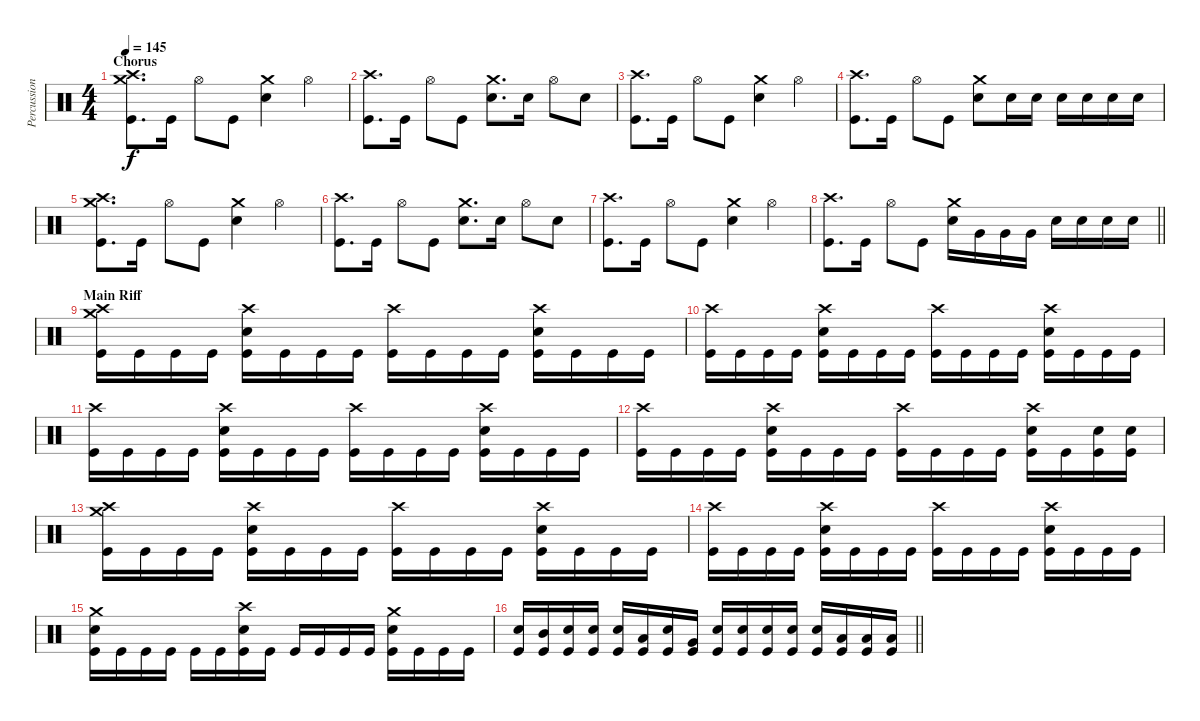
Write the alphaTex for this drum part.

\track ("Percussion" "Percussion") {instrument percussion}
\staff {score}
\articulation defaults
\ts (4 4)
\section ("" "Chorus")
\tempo 145
\clef neutral
\ks c
("Crash high (hit)" "Crash medium (hit)" "Kick (hit)").8{d dy f} "Kick (hit)".16 "Hi-Hat (open)".8 "Kick (hit)".8 ("Crash medium (hit)" "Electric Snare (hit)").4 "Hi-Hat (open)".4 |
("Crash high (hit)" "Kick (hit)").8{d} "Kick (hit)".16 "Hi-Hat (open)".8 "Kick (hit)".8 ("Crash medium (hit)" "Electric Snare (hit)").8{d} "Electric Snare (hit)".16 "Hi-Hat (open)".8 "Electric Snare (hit)".8 |
("Crash high (hit)" "Kick (hit)").8{d} "Kick (hit)".16 "Hi-Hat (open)".8 "Kick (hit)".8 ("Crash medium (hit)" "Electric Snare (hit)").4 "Hi-Hat (open)".4 |
("Crash high (hit)" "Kick (hit)").8{d} "Kick (hit)".16 "Hi-Hat (open)".8 "Kick (hit)".8 ("Crash medium (hit)" "Electric Snare (hit)").8 "Electric Snare (hit)".16 "Electric Snare (hit)".16 "Electric Snare (hit)".16 "Electric Snare (hit)".16 "Electric Snare (hit)".16 "Electric Snare (hit)".16 |
("Crash high (hit)" "Crash medium (hit)" "Kick (hit)").8{d} "Kick (hit)".16 "Hi-Hat (open)".8 "Kick (hit)".8 ("Crash medium (hit)" "Electric Snare (hit)").4 "Hi-Hat (open)".4 |
("Crash high (hit)" "Kick (hit)").8{d} "Kick (hit)".16 "Hi-Hat (open)".8 "Kick (hit)".8 ("Crash medium (hit)" "Electric Snare (hit)").8{d} "Electric Snare (hit)".16 "Hi-Hat (open)".8 "Electric Snare (hit)".8 |
("Crash high (hit)" "Kick (hit)").8{d} "Kick (hit)".16 "Hi-Hat (open)".8 "Kick (hit)".8 ("Crash medium (hit)" "Electric Snare (hit)").4 "Hi-Hat (open)".4 |
\barLineRight lightlight
("Crash high (hit)" "Kick (hit)").8{d} "Kick (hit)".16 "Hi-Hat (open)".8 "Kick (hit)".8 ("Crash medium (hit)" "Electric Snare (hit)").16 "Very Low Tom (hit)".16 "Very Low Tom (hit)".16 "Very Low Tom (hit)".16 "Electric Snare (hit)".16 "Electric Snare (hit)".16 "Electric Snare (hit)".16 "Electric Snare (hit)".16 |
\section ("" "Main Riff")
("Crash medium (hit)" "Crash high (hit)" "Kick (hit)").16 "Kick (hit)".16 "Kick (hit)".16 "Kick (hit)".16 ("Crash high (hit)" "Electric Snare (hit)" "Kick (hit)").16 "Kick (hit)".16 "Kick (hit)".16 "Kick (hit)".16 ("Crash high (hit)" "Kick (hit)").16 "Kick (hit)".16 "Kick (hit)".16 "Kick (hit)".16 ("Crash high (hit)" "Electric Snare (hit)" "Kick (hit)").16 "Kick (hit)".16 "Kick (hit)".16 "Kick (hit)".16 |
("Crash high (hit)" "Kick (hit)").16 "Kick (hit)".16 "Kick (hit)".16 "Kick (hit)".16 ("Crash high (hit)" "Electric Snare (hit)" "Kick (hit)").16 "Kick (hit)".16 "Kick (hit)".16 "Kick (hit)".16 ("Crash high (hit)" "Kick (hit)").16 "Kick (hit)".16 "Kick (hit)".16 "Kick (hit)".16 ("Crash high (hit)" "Electric Snare (hit)" "Kick (hit)").16 "Kick (hit)".16 "Kick (hit)".16 "Kick (hit)".16 |
("Crash high (hit)" "Kick (hit)").16 "Kick (hit)".16 "Kick (hit)".16 "Kick (hit)".16 ("Crash high (hit)" "Electric Snare (hit)" "Kick (hit)").16 "Kick (hit)".16 "Kick (hit)".16 "Kick (hit)".16 ("Crash high (hit)" "Kick (hit)").16 "Kick (hit)".16 "Kick (hit)".16 "Kick (hit)".16 ("Crash high (hit)" "Electric Snare (hit)" "Kick (hit)").16 "Kick (hit)".16 "Kick (hit)".16 "Kick (hit)".16 |
("Crash high (hit)" "Kick (hit)").16 "Kick (hit)".16 "Kick (hit)".16 "Kick (hit)".16 ("Crash high (hit)" "Electric Snare (hit)" "Kick (hit)").16 "Kick (hit)".16 "Kick (hit)".16 "Kick (hit)".16 ("Crash high (hit)" "Kick (hit)").16 "Kick (hit)".16 "Kick (hit)".16 "Kick (hit)".16 ("Crash high (hit)" "Electric Snare (hit)" "Kick (hit)").16 "Kick (hit)".16 ("Electric Snare (hit)" "Kick (hit)").16 ("Electric Snare (hit)" "Kick (hit)").16 |
("Crash medium (hit)" "Crash high (hit)" "Kick (hit)").16 "Kick (hit)".16 "Kick (hit)".16 "Kick (hit)".16 ("Crash high (hit)" "Electric Snare (hit)" "Kick (hit)").16 "Kick (hit)".16 "Kick (hit)".16 "Kick (hit)".16 ("Crash high (hit)" "Kick (hit)").16 "Kick (hit)".16 "Kick (hit)".16 "Kick (hit)".16 ("Crash high (hit)" "Electric Snare (hit)" "Kick (hit)").16 "Kick (hit)".16 "Kick (hit)".16 "Kick (hit)".16 |
("Crash high (hit)" "Kick (hit)").16 "Kick (hit)".16 "Kick (hit)".16 "Kick (hit)".16 ("Crash high (hit)" "Electric Snare (hit)" "Kick (hit)").16 "Kick (hit)".16 "Kick (hit)".16 "Kick (hit)".16 ("Crash high (hit)" "Kick (hit)").16 "Kick (hit)".16 "Kick (hit)".16 "Kick (hit)".16 ("Crash high (hit)" "Electric Snare (hit)" "Kick (hit)").16 "Kick (hit)".16 "Kick (hit)".16 "Kick (hit)".16 |
("Crash medium (hit)" "Electric Snare (hit)" "Kick (hit)").16 "Kick (hit)".16 "Kick (hit)".16 "Kick (hit)".16 "Kick (hit)".16 "Kick (hit)".16 ("Crash high (hit)" "Electric Snare (hit)" "Kick (hit)").16 "Kick (hit)".16 "Kick (hit)".16 "Kick (hit)".16 "Kick (hit)".16 "Kick (hit)".16 ("Crash medium (hit)" "Electric Snare (hit)" "Kick (hit)").16 "Kick (hit)".16 "Kick (hit)".16 "Kick (hit)".16 |
\barLineRight lightlight
("Electric Snare (hit)" "Kick (hit)").16 ("Mid Tom (hit)" "Kick (hit)").16 ("Electric Snare (hit)" "Kick (hit)").16 ("Electric Snare (hit)" "Kick (hit)").16 ("Electric Snare (hit)" "Kick (hit)").16 ("Low Tom (hit)" "Kick (hit)").16 ("Electric Snare (hit)" "Kick (hit)").16 ("Very Low Tom (hit)" "Kick (hit)").16 ("Electric Snare (hit)" "Kick (hit)").16 ("Electric Snare (hit)" "Kick (hit)").16 ("Electric Snare (hit)" "Kick (hit)").16 ("Electric Snare (hit)" "Kick (hit)").16 ("Electric Snare (hit)" "Kick (hit)").16 ("Low Floor Tom (hit)" "Kick (hit)").16 ("Low Floor Tom (hit)" "Kick (hit)").16 ("Low Floor Tom (hit)" "Kick (hit)").16
